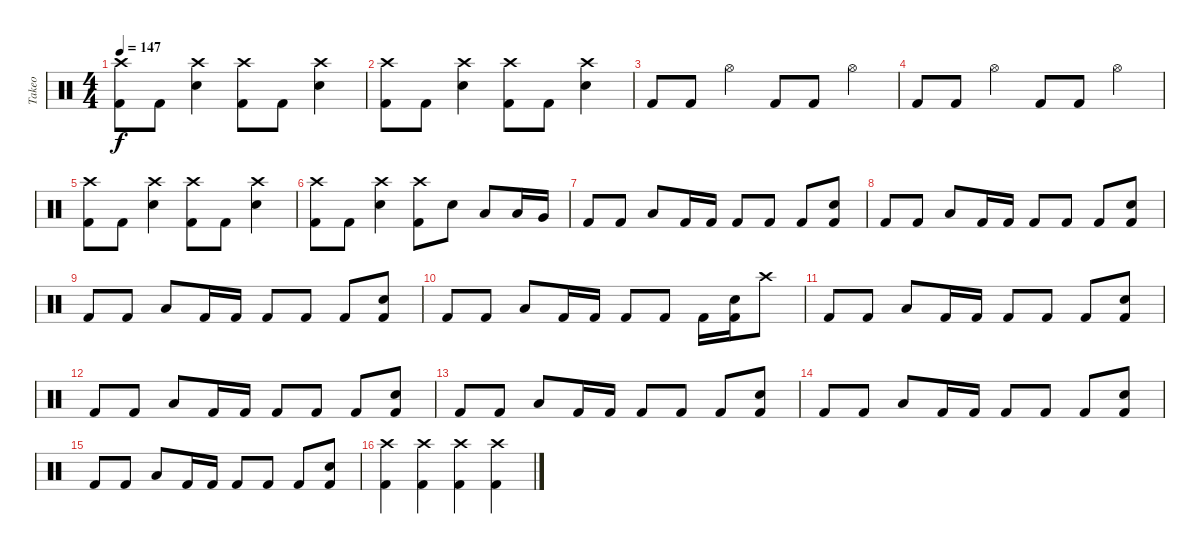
\track ("Takeo" "Takeo") {instrument percussion}
\staff {score}
\articulation defaults
\ts (4 4)
\tempo 147
\clef neutral
\ks c
("Kick (hit) 2" "Crash high (hit)").8{dy f} "Kick (hit) 2".8 ("Snare (hit) 2" "Crash high (hit)").4 ("Kick (hit) 2" "Crash high (hit)").8 "Kick (hit) 2".8 ("Snare (hit) 2" "Crash high (hit)").4 |
("Kick (hit) 2" "Crash high (hit)").8 "Kick (hit) 2".8 ("Snare (hit) 2" "Crash high (hit)").4 ("Kick (hit) 2" "Crash high (hit)").8 "Kick (hit) 2".8 ("Snare (hit) 2" "Crash high (hit)").4 |
"Kick (hit) 2".8 "Kick (hit) 2".8 "Hi-Hat (open)".4 "Kick (hit) 2".8 "Kick (hit) 2".8 "Hi-Hat (open)".4 |
"Kick (hit) 2".8 "Kick (hit) 2".8 "Hi-Hat (open)".4 "Kick (hit) 2".8 "Kick (hit) 2".8 "Hi-Hat (open)".4 |
("Kick (hit) 2" "Crash high (hit)").8 "Kick (hit) 2".8 ("Snare (hit) 2" "Crash high (hit)").4 ("Kick (hit) 2" "Crash high (hit)").8 "Kick (hit) 2".8 ("Snare (hit) 2" "Crash high (hit)").4 |
("Kick (hit) 2" "Crash high (hit)").8 "Kick (hit) 2".8 ("Snare (hit) 2" "Crash high (hit)").4 ("Kick (hit) 2" "Crash high (hit)").8 "Snare (hit) 2".8 "Low Tom (hit)".8 "Low Tom (hit)".16 "Very Low Tom (hit)".16 |
"Kick (hit) 2".8 "Kick (hit) 2".8 "Low Tom (hit)".8 "Kick (hit) 2".16 "Kick (hit) 2".16 "Kick (hit) 2".8 "Kick (hit) 2".8 "Kick (hit) 2".8 ("Kick (hit) 2" "Snare (hit) 2").8 |
"Kick (hit) 2".8 "Kick (hit) 2".8 "Low Tom (hit)".8 "Kick (hit) 2".16 "Kick (hit) 2".16 "Kick (hit) 2".8 "Kick (hit) 2".8 "Kick (hit) 2".8 ("Kick (hit) 2" "Snare (hit) 2").8 |
"Kick (hit) 2".8 "Kick (hit) 2".8 "Low Tom (hit)".8 "Kick (hit) 2".16 "Kick (hit) 2".16 "Kick (hit) 2".8 "Kick (hit) 2".8 "Kick (hit) 2".8 ("Kick (hit) 2" "Snare (hit) 2").8 |
"Kick (hit) 2".8 "Kick (hit) 2".8 "Low Tom (hit)".8 "Kick (hit) 2".16 "Kick (hit) 2".16 "Kick (hit) 2".8 "Kick (hit) 2".8 "Kick (hit) 2".16 ("Kick (hit) 2" "Snare (hit) 2").16 "Crash high (hit)".8 |
"Kick (hit) 2".8 "Kick (hit) 2".8 "Low Tom (hit)".8 "Kick (hit) 2".16 "Kick (hit) 2".16 "Kick (hit) 2".8 "Kick (hit) 2".8 "Kick (hit) 2".8 ("Kick (hit) 2" "Snare (hit) 2").8 |
"Kick (hit) 2".8 "Kick (hit) 2".8 "Low Tom (hit)".8 "Kick (hit) 2".16 "Kick (hit) 2".16 "Kick (hit) 2".8 "Kick (hit) 2".8 "Kick (hit) 2".8 ("Kick (hit) 2" "Snare (hit) 2").8 |
"Kick (hit) 2".8 "Kick (hit) 2".8 "Low Tom (hit)".8 "Kick (hit) 2".16 "Kick (hit) 2".16 "Kick (hit) 2".8 "Kick (hit) 2".8 "Kick (hit) 2".8 ("Kick (hit) 2" "Snare (hit) 2").8 |
"Kick (hit) 2".8 "Kick (hit) 2".8 "Low Tom (hit)".8 "Kick (hit) 2".16 "Kick (hit) 2".16 "Kick (hit) 2".8 "Kick (hit) 2".8 "Kick (hit) 2".8 ("Kick (hit) 2" "Snare (hit) 2").8 |
"Kick (hit) 2".8 "Kick (hit) 2".8 "Low Tom (hit)".8 "Kick (hit) 2".16 "Kick (hit) 2".16 "Kick (hit) 2".8 "Kick (hit) 2".8 "Kick (hit) 2".8 ("Kick (hit) 2" "Snare (hit) 2").8 |
("Kick (hit) 2" "Crash high (hit)").4 ("Kick (hit) 2" "Crash high (hit)").4 ("Kick (hit) 2" "Crash high (hit)").4 ("Kick (hit) 2" "Crash high (hit)").4
